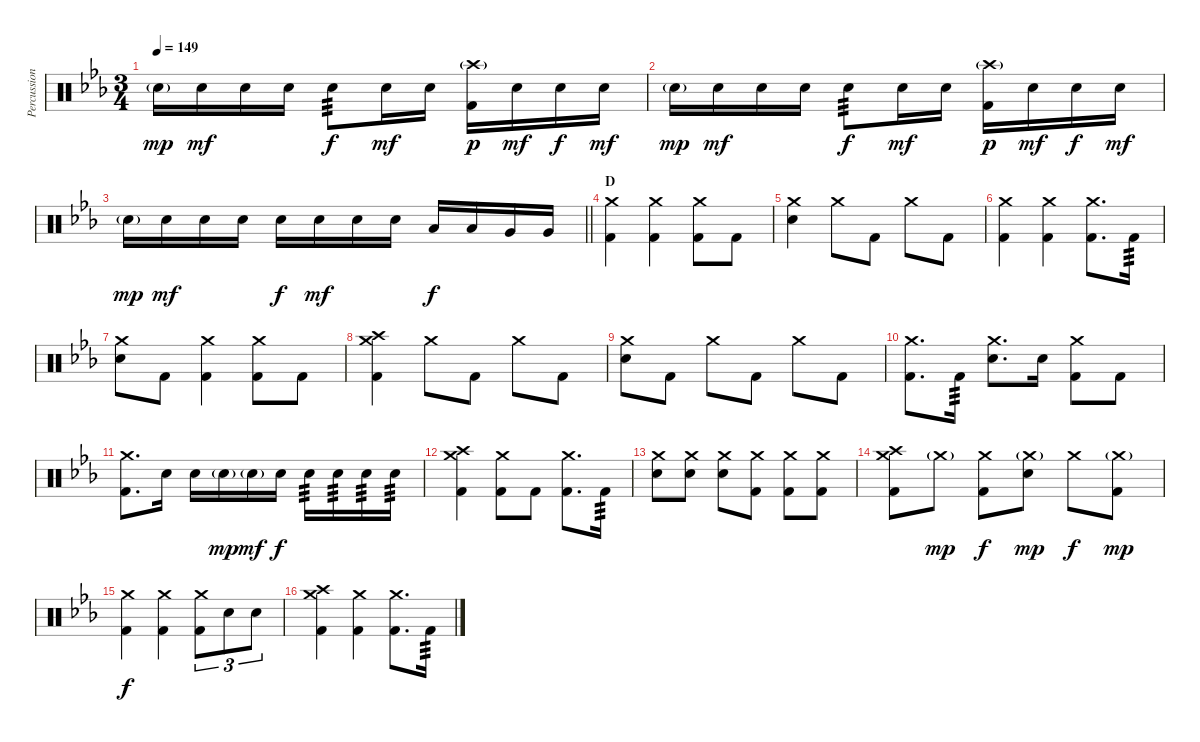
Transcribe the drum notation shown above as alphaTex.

\track ("Percussion" "Percussion") {instrument percussion}
\staff {score}
\articulation defaults
\ts (3 4)
\tempo 149
\clef neutral
\ks cminor "Snare (hit) 2"{g}.16{dy mp} "Snare (hit) 2".16{dy mf} "Snare (hit) 2".16 "Snare (hit) 2".16 "Snare (hit) 2".8{tp 3 dy f} "Snare (hit) 2".16{dy mf} "Snare (hit) 2".16
("Crash high (hit)"{g} "Kick (hit) 2").16{dy p} "Snare (hit) 2".16{dy mf} "Snare (hit) 2".16{dy f} "Snare (hit) 2".16{dy mf} |
"Snare (hit) 2"{g}.16{dy mp} "Snare (hit) 2".16{dy mf} "Snare (hit) 2".16 "Snare (hit) 2".16 "Snare (hit) 2".8{tp 3 dy f} "Snare (hit) 2".16{dy mf} "Snare (hit) 2".16 ("Crash high (hit)"{g} "Kick (hit) 2").16{dy p} "Snare (hit) 2".16{dy mf} "Snare (hit) 2".16{dy f} "Snare (hit) 2".16{dy mf} |
\barLineRight lightlight "Snare (hit) 2"{g}.16{dy mp} "Snare (hit) 2".16{dy mf} "Snare (hit) 2".16 "Snare (hit) 2".16 "Snare (hit) 2".16{dy f} "Snare (hit) 2".16{dy mf} "Snare (hit) 2".16 "Snare (hit) 2".16 "Low Tom (hit)".16{dy f} "Low Tom (hit)".16 "Very Low Tom (hit)".16 "Very Low Tom (hit)".16
|
\section ("" "D")
("Crash medium (hit)" "Kick (hit) 2").4 ("Crash medium (hit)" "Kick (hit) 2").4 ("Crash medium (hit)" "Kick (hit) 2").8 "Kick (hit) 2".8 |
("Crash medium (hit)" "Snare (hit) 2").4 "Crash medium (hit)".8 "Kick (hit) 2".8 "Crash medium (hit)".8 "Kick (hit) 2".8 |
("Crash medium (hit)" "Kick (hit) 2").4 ("Crash medium (hit)" "Kick (hit) 2").4 ("Crash medium (hit)" "Kick (hit) 2").8{d} "Kick (hit) 2".16{tp 3} |
("Crash medium (hit)" "Snare (hit) 2").8 "Kick (hit) 2".8 ("Crash medium (hit)" "Kick (hit) 2").4 ("Crash medium (hit)" "Kick (hit) 2").8 "Kick (hit) 2".8 |
("Crash medium (hit)" "Crash high (hit)" "Kick (hit) 2").4 "Crash medium (hit)".8 "Kick (hit) 2".8 "Crash medium (hit)".8 "Kick (hit) 2".8 |
("Crash medium (hit)" "Snare (hit) 2").8 "Kick (hit) 2".8 "Crash medium (hit)".8 "Kick (hit) 2".8 "Crash medium (hit)".8 "Kick (hit) 2".8 |
("Crash medium (hit)" "Kick (hit) 2").8{d} "Kick (hit) 2".16{tp 3} ("Crash medium (hit)" "Snare (hit) 2").8{d} "Snare (hit) 2".16 ("Crash medium (hit)" "Kick (hit) 2").8 "Kick (hit) 2".8 |
("Crash medium (hit)" "Kick (hit) 2").8{d} "Snare (hit) 2".16 "Snare (hit) 2".16 "Snare (hit) 2"{g}.16{dy mp} "Snare (hit) 2"{g}.16{dy mf} "Snare (hit) 2".16{dy f} "Snare (hit) 2".16{tp 3} "Snare (hit) 2".16{tp 3} "Snare (hit) 2".16{tp 3} "Snare (hit) 2".16{tp 3} |
("Crash medium (hit)" "Crash high (hit)" "Kick (hit) 2").4 ("Crash medium (hit)" "Kick (hit) 2").8 "Kick (hit) 2".8 ("Crash medium (hit)" "Kick (hit) 2").8{d} "Kick (hit) 2".16{tp 3} |
("Crash medium (hit)" "Snare (hit) 2").8 ("Crash medium (hit)" "Snare (hit) 2").8 ("Crash medium (hit)" "Snare (hit) 2").8 ("Crash medium (hit)" "Kick (hit) 2").8 ("Crash medium (hit)" "Kick (hit) 2").8 ("Crash medium (hit)" "Kick (hit) 2").8 |
("Crash medium (hit)" "Crash high (hit)" "Kick (hit) 2").8 "Crash medium (hit)"{g}.8{dy mp} ("Crash medium (hit)" "Kick (hit) 2").8{dy f} ("Crash medium (hit)"{g} "Snare (hit) 2").8{dy mp} "Crash medium (hit)".8{dy f} ("Crash medium (hit)"{g} "Kick (hit) 2").8{dy mp} |
("Crash medium (hit)" "Kick (hit) 2").4{dy f} ("Crash medium (hit)" "Kick (hit) 2").4 ("Crash medium (hit)" "Kick (hit) 2").8{tu (3 2)} "Snare (hit) 2".8{tu (3 2)} "Snare (hit) 2".8{tu (3 2)} |
("Crash medium (hit)" "Crash high (hit)" "Kick (hit) 2").4 ("Crash medium (hit)" "Kick (hit) 2").4 ("Crash medium (hit)" "Kick (hit) 2").8{d} "Kick (hit) 2".16{tp 3}
